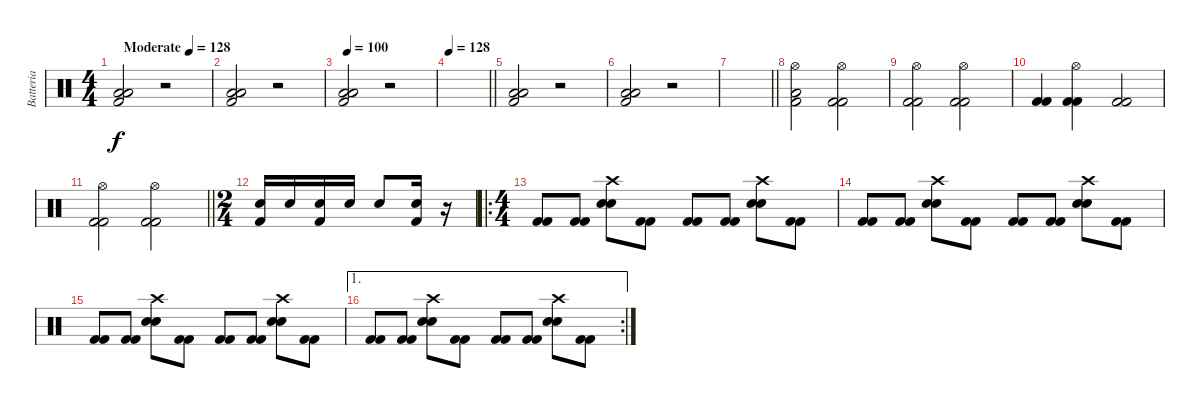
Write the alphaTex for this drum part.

\track ("Batteria" "Batteria") {instrument percussion}
\staff {score}
\articulation defaults
\ts (4 4)
\tempo (128 "Moderate")
\clef neutral
\ks c
("Kick (hit) 2" "Low Floor Tom (hit)" "Low Floor Tom (hit)").2{dy f} r.2 |
("Kick (hit) 2" "Low Floor Tom (hit)" "Low Floor Tom (hit)").2 r.2 |
\tempo 100
("Kick (hit) 2" "Low Floor Tom (hit)" "Low Floor Tom (hit)").2 r.2 |
\tempo 128
\barLineRight lightlight
|
("Kick (hit) 2" "Low Floor Tom (hit)" "Low Floor Tom (hit)").2 r.2 |
("Kick (hit) 2" "Low Floor Tom (hit)" "Low Floor Tom (hit)").2 r.2 |
\barLineRight lightlight
|
("Kick (hit) 2" "Low Floor Tom (hit)" "Hi-Hat (open)").2 ("Kick (hit) 2" "Kick (hit) 2" "Hi-Hat (open)").2 |
("Kick (hit) 2" "Kick (hit) 2" "Hi-Hat (open)").2 ("Kick (hit) 2" "Kick (hit) 2" "Hi-Hat (open)").2 |
("Kick (hit) 2" "Kick (hit) 2").4 ("Kick (hit) 2" "Kick (hit) 2" "Hi-Hat (open)").4 ("Kick (hit) 2" "Kick (hit) 2").2 |
\barLineRight lightlight
("Kick (hit) 2" "Kick (hit) 2" "Hi-Hat (open)").2 ("Kick (hit) 2" "Kick (hit) 2" "Hi-Hat (open)").2 |
\ts (2 4)
("Snare (hit) 2" "Kick (hit) 2").16 "Snare (hit) 2".16 ("Snare (hit) 2" "Kick (hit) 2").16 "Snare (hit) 2".16 "Snare (hit) 2".8 ("Electric Snare (hit)" "Kick (hit) 2").16 r.16 |
\ro
\ts (4 4)
("Kick (hit) 2" "Kick (hit) 2").8 ("Kick (hit) 2" "Kick (hit) 2").8 ("Crash high (hit)" "Electric Snare (hit)" "Snare (hit) 2").8 ("Kick (hit) 2" "Kick (hit) 2").8 ("Kick (hit) 2" "Kick (hit) 2").8 ("Kick (hit) 2" "Kick (hit) 2").8 ("Crash high (hit)" "Electric Snare (hit)" "Snare (hit) 2").8 ("Kick (hit) 2" "Kick (hit) 2").8 |
("Kick (hit) 2" "Kick (hit) 2").8 ("Kick (hit) 2" "Kick (hit) 2").8 ("Crash high (hit)" "Electric Snare (hit)" "Snare (hit) 2").8 ("Kick (hit) 2" "Kick (hit) 2").8 ("Kick (hit) 2" "Kick (hit) 2").8 ("Kick (hit) 2" "Kick (hit) 2").8 ("Crash high (hit)" "Electric Snare (hit)" "Snare (hit) 2").8 ("Kick (hit) 2" "Kick (hit) 2").8 |
("Kick (hit) 2" "Kick (hit) 2").8 ("Kick (hit) 2" "Kick (hit) 2").8 ("Crash high (hit)" "Electric Snare (hit)" "Snare (hit) 2").8 ("Kick (hit) 2" "Kick (hit) 2").8 ("Kick (hit) 2" "Kick (hit) 2").8 ("Kick (hit) 2" "Kick (hit) 2").8 ("Crash high (hit)" "Electric Snare (hit)" "Snare (hit) 2").8 ("Kick (hit) 2" "Kick (hit) 2").8 |
\ae 1
\rc 2
("Kick (hit) 2" "Kick (hit) 2").8 ("Kick (hit) 2" "Kick (hit) 2").8 ("Crash high (hit)" "Electric Snare (hit)" "Snare (hit) 2").8 ("Kick (hit) 2" "Kick (hit) 2").8 ("Kick (hit) 2" "Kick (hit) 2").8 ("Kick (hit) 2" "Kick (hit) 2").8 ("Crash high (hit)" "Electric Snare (hit)" "Snare (hit) 2").8 ("Kick (hit) 2" "Kick (hit) 2").8
